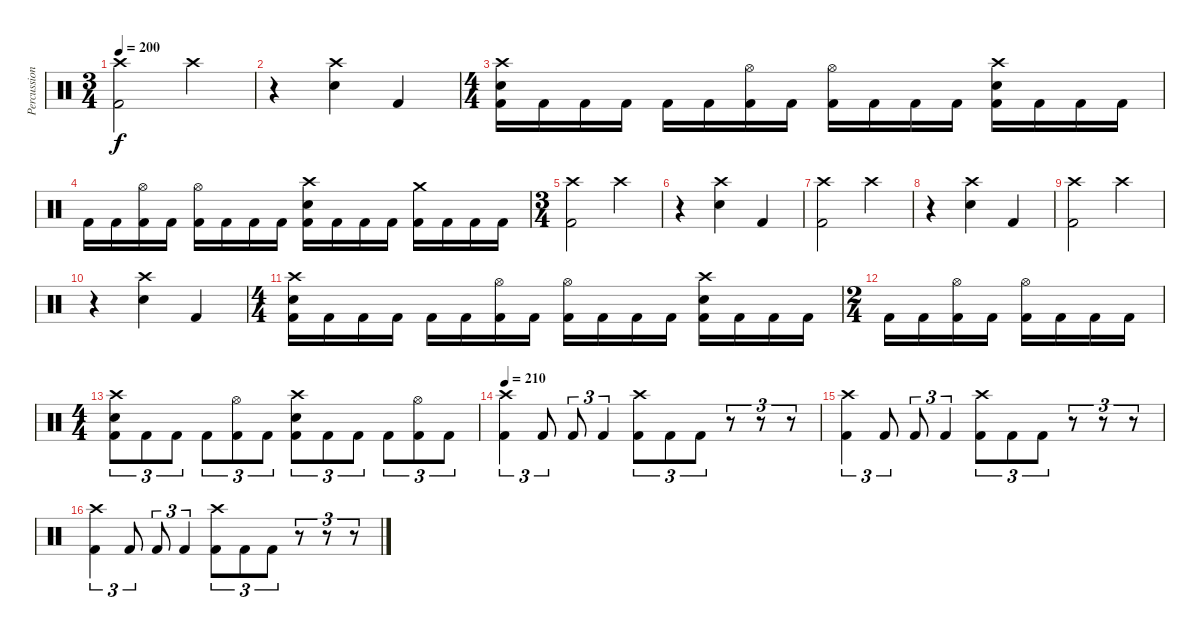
\track ("Percussion" "Percussion") {instrument percussion}
\staff {score}
\articulation defaults
\ts (3 4)
\tempo 200
\clef neutral
\ks c
("Crash high (hit)" "Kick (hit) 2").2{dy f} "Crash high (hit)".4 |
r.4 ("Crash high (hit)" "Electric Snare (hit)").4 "Kick (hit) 2".4 |
\ts (4 4)
("Crash high (hit)" "Electric Snare (hit)" "Kick (hit) 2").16 "Kick (hit) 2".16 "Kick (hit) 2".16 "Kick (hit) 2".16 "Kick (hit) 2".16 "Kick (hit) 2".16 ("Hi-Hat (open)" "Kick (hit) 2").16 "Kick (hit) 2".16 ("Hi-Hat (open)" "Kick (hit) 2").16 "Kick (hit) 2".16 "Kick (hit) 2".16 "Kick (hit) 2".16 ("Crash high (hit)" "Electric Snare (hit)" "Kick (hit) 2").16 "Kick (hit) 2".16 "Kick (hit) 2".16 "Kick (hit) 2".16 |
"Kick (hit) 2".16 "Kick (hit) 2".16 ("Hi-Hat (open)" "Kick (hit) 2").16 "Kick (hit) 2".16 ("Hi-Hat (open)" "Kick (hit) 2").16 "Kick (hit) 2".16 "Kick (hit) 2".16 "Kick (hit) 2".16 ("Crash high (hit)" "Electric Snare (hit)" "Kick (hit) 2").16 "Kick (hit) 2".16 "Kick (hit) 2".16 "Kick (hit) 2".16 ("Crash medium (hit)" "Kick (hit) 2").16 "Kick (hit) 2".16 "Kick (hit) 2".16 "Kick (hit) 2".16 |
\ts (3 4)
("Crash high (hit)" "Kick (hit) 2").2 "Crash high (hit)".4 |
r.4 ("Crash high (hit)" "Electric Snare (hit)").4 "Kick (hit) 2".4 |
("Crash high (hit)" "Kick (hit) 2").2 "Crash high (hit)".4 |
r.4 ("Crash high (hit)" "Electric Snare (hit)").4 "Kick (hit) 2".4 |
("Crash high (hit)" "Kick (hit) 2").2 "Crash high (hit)".4 |
r.4 ("Crash high (hit)" "Electric Snare (hit)").4 "Kick (hit) 2".4 |
\ts (4 4)
("Crash high (hit)" "Electric Snare (hit)" "Kick (hit) 2").16 "Kick (hit) 2".16 "Kick (hit) 2".16 "Kick (hit) 2".16 "Kick (hit) 2".16 "Kick (hit) 2".16 ("Hi-Hat (open)" "Kick (hit) 2").16 "Kick (hit) 2".16 ("Hi-Hat (open)" "Kick (hit) 2").16 "Kick (hit) 2".16 "Kick (hit) 2".16 "Kick (hit) 2".16 ("Crash high (hit)" "Electric Snare (hit)" "Kick (hit) 2").16 "Kick (hit) 2".16 "Kick (hit) 2".16 "Kick (hit) 2".16 |
\ts (2 4)
"Kick (hit) 2".16 "Kick (hit) 2".16 ("Hi-Hat (open)" "Kick (hit) 2").16 "Kick (hit) 2".16 ("Hi-Hat (open)" "Kick (hit) 2").16 "Kick (hit) 2".16 "Kick (hit) 2".16 "Kick (hit) 2".16 |
\ts (4 4)
("Crash high (hit)" "Electric Snare (hit)" "Kick (hit) 2").8{tu (3 2)} "Kick (hit) 2".8{tu (3 2)} "Kick (hit) 2".8{tu (3 2)} "Kick (hit) 2".8{tu (3 2)} ("Hi-Hat (open)" "Kick (hit) 2").8{tu (3 2)} "Kick (hit) 2".8{tu (3 2)} ("Crash high (hit)" "Electric Snare (hit)" "Kick (hit) 2").8{tu (3 2)} "Kick (hit) 2".8{tu (3 2)} "Kick (hit) 2".8{tu (3 2)} "Kick (hit) 2".8{tu (3 2)} ("Hi-Hat (open)" "Kick (hit) 2").8{tu (3 2)} "Kick (hit) 2".8{tu (3 2)} |
\tempo 210
("Crash high (hit)" "Kick (hit) 2").4{tu (3 2)} "Kick (hit) 2".8{tu (3 2)} "Kick (hit) 2".8{tu (3 2)} "Kick (hit) 2".4{tu (3 2)} ("Crash high (hit)" "Kick (hit) 2").8{tu (3 2)} "Kick (hit) 2".8{tu (3 2)} "Kick (hit) 2".8{tu (3 2)} r.8{tu (3 2)} r.8{tu (3 2)} r.8{tu (3 2)} |
("Crash high (hit)" "Kick (hit) 2").4{tu (3 2)} "Kick (hit) 2".8{tu (3 2)} "Kick (hit) 2".8{tu (3 2)} "Kick (hit) 2".4{tu (3 2)} ("Crash high (hit)" "Kick (hit) 2").8{tu (3 2)} "Kick (hit) 2".8{tu (3 2)} "Kick (hit) 2".8{tu (3 2)} r.8{tu (3 2)} r.8{tu (3 2)} r.8{tu (3 2)} |
("Crash high (hit)" "Kick (hit) 2").4{tu (3 2)} "Kick (hit) 2".8{tu (3 2)} "Kick (hit) 2".8{tu (3 2)} "Kick (hit) 2".4{tu (3 2)} ("Crash high (hit)" "Kick (hit) 2").8{tu (3 2)} "Kick (hit) 2".8{tu (3 2)} "Kick (hit) 2".8{tu (3 2)} r.8{tu (3 2)} r.8{tu (3 2)} r.8{tu (3 2)}
